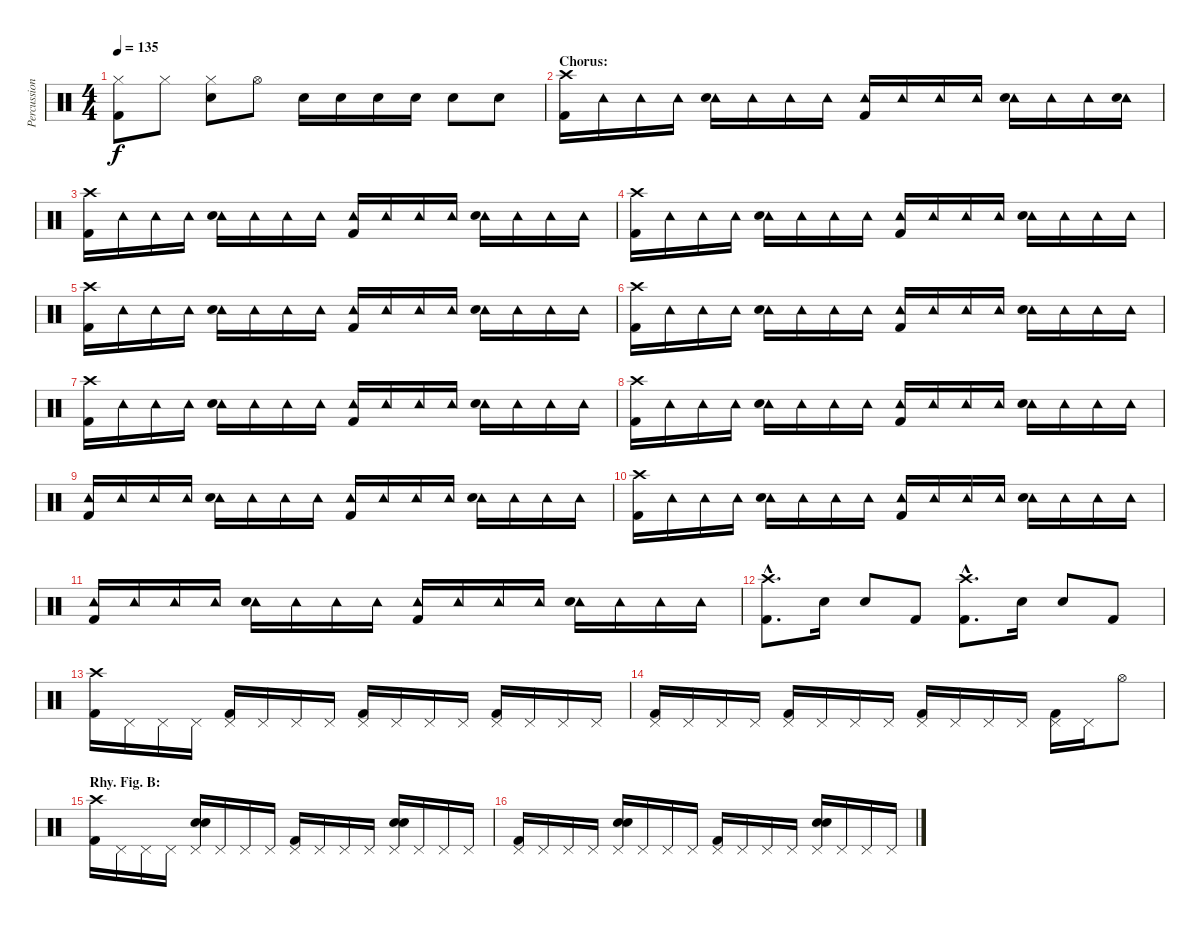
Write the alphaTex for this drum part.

\track ("Percussion" "Percussion") {instrument percussion}
\staff {score}
\articulation defaults
\ts (4 4)
\tempo 135
\clef neutral
\ks c
("Hi-Hat (closed)" "Kick (hit) 2").8{dy f} "Hi-Hat (closed)".8 ("Hi-Hat (closed)" "Snare (hit) 2").8 "Hi-Hat (open)".8 "Snare (hit) 2".16 "Snare (hit) 2".16 "Snare (hit) 2".16 "Snare (hit) 2".16 "Snare (hit) 2".8 "Snare (hit) 2".8 |
\section ("" "Chorus:")
("Crash high (hit)" "Kick (hit) 2").16 "Tambourine (hit)".16 "Tambourine (hit)".16 "Tambourine (hit)".16 ("Tambourine (hit)" "Snare (hit) 2").16 "Tambourine (hit)".16 "Tambourine (hit)".16 "Tambourine (hit)".16 ("Tambourine (hit)" "Kick (hit) 2").16 "Tambourine (hit)".16 "Tambourine (hit)".16 "Tambourine (hit)".16 ("Tambourine (hit)" "Snare (hit) 2").16 "Tambourine (hit)".16 "Tambourine (hit)".16 ("Tambourine (hit)" "Snare (hit) 2").16 |
("Crash high (hit)" "Kick (hit) 2").16 "Tambourine (hit)".16 "Tambourine (hit)".16 "Tambourine (hit)".16 ("Tambourine (hit)" "Snare (hit) 2").16 "Tambourine (hit)".16 "Tambourine (hit)".16 "Tambourine (hit)".16 ("Tambourine (hit)" "Kick (hit) 2").16 "Tambourine (hit)".16 "Tambourine (hit)".16 "Tambourine (hit)".16 ("Tambourine (hit)" "Snare (hit) 2").16 "Tambourine (hit)".16 "Tambourine (hit)".16 "Tambourine (hit)".16 |
("Crash high (hit)" "Kick (hit) 2").16 "Tambourine (hit)".16 "Tambourine (hit)".16 "Tambourine (hit)".16 ("Tambourine (hit)" "Snare (hit) 2").16 "Tambourine (hit)".16 "Tambourine (hit)".16 "Tambourine (hit)".16 ("Tambourine (hit)" "Kick (hit) 2").16 "Tambourine (hit)".16 "Tambourine (hit)".16 "Tambourine (hit)".16 ("Tambourine (hit)" "Snare (hit) 2").16 "Tambourine (hit)".16 "Tambourine (hit)".16 "Tambourine (hit)".16 |
("Crash high (hit)" "Kick (hit) 2").16 "Tambourine (hit)".16 "Tambourine (hit)".16 "Tambourine (hit)".16 ("Tambourine (hit)" "Snare (hit) 2").16 "Tambourine (hit)".16 "Tambourine (hit)".16 "Tambourine (hit)".16 ("Tambourine (hit)" "Kick (hit) 2").16 "Tambourine (hit)".16 "Tambourine (hit)".16 "Tambourine (hit)".16 ("Tambourine (hit)" "Snare (hit) 2").16 "Tambourine (hit)".16 "Tambourine (hit)".16 "Tambourine (hit)".16 |
("Crash high (hit)" "Kick (hit) 2").16 "Tambourine (hit)".16 "Tambourine (hit)".16 "Tambourine (hit)".16 ("Tambourine (hit)" "Snare (hit) 2").16 "Tambourine (hit)".16 "Tambourine (hit)".16 "Tambourine (hit)".16 ("Tambourine (hit)" "Kick (hit) 2").16 "Tambourine (hit)".16 "Tambourine (hit)".16 "Tambourine (hit)".16 ("Tambourine (hit)" "Snare (hit) 2").16 "Tambourine (hit)".16 "Tambourine (hit)".16 "Tambourine (hit)".16 |
("Crash high (hit)" "Kick (hit) 2").16 "Tambourine (hit)".16 "Tambourine (hit)".16 "Tambourine (hit)".16 ("Tambourine (hit)" "Snare (hit) 2").16 "Tambourine (hit)".16 "Tambourine (hit)".16 "Tambourine (hit)".16 ("Tambourine (hit)" "Kick (hit) 2").16 "Tambourine (hit)".16 "Tambourine (hit)".16 "Tambourine (hit)".16 ("Tambourine (hit)" "Snare (hit) 2").16 "Tambourine (hit)".16 "Tambourine (hit)".16 "Tambourine (hit)".16 |
("Crash high (hit)" "Kick (hit) 2").16 "Tambourine (hit)".16 "Tambourine (hit)".16 "Tambourine (hit)".16 ("Tambourine (hit)" "Snare (hit) 2").16 "Tambourine (hit)".16 "Tambourine (hit)".16 "Tambourine (hit)".16 ("Tambourine (hit)" "Kick (hit) 2").16 "Tambourine (hit)".16 "Tambourine (hit)".16 "Tambourine (hit)".16 ("Tambourine (hit)" "Snare (hit) 2").16 "Tambourine (hit)".16 "Tambourine (hit)".16 "Tambourine (hit)".16 |
("Tambourine (hit)" "Kick (hit) 2").16 "Tambourine (hit)".16 "Tambourine (hit)".16 "Tambourine (hit)".16 ("Tambourine (hit)" "Snare (hit) 2").16 "Tambourine (hit)".16 "Tambourine (hit)".16 "Tambourine (hit)".16 ("Tambourine (hit)" "Kick (hit) 2").16 "Tambourine (hit)".16 "Tambourine (hit)".16 "Tambourine (hit)".16 ("Tambourine (hit)" "Snare (hit) 2").16 "Tambourine (hit)".16 "Tambourine (hit)".16 "Tambourine (hit)".16 |
("Crash high (hit)" "Kick (hit) 2").16 "Tambourine (hit)".16 "Tambourine (hit)".16 "Tambourine (hit)".16 ("Tambourine (hit)" "Snare (hit) 2").16 "Tambourine (hit)".16 "Tambourine (hit)".16 "Tambourine (hit)".16 ("Tambourine (hit)" "Kick (hit) 2").16 "Tambourine (hit)".16 "Tambourine (hit)".16 "Tambourine (hit)".16 ("Tambourine (hit)" "Snare (hit) 2").16 "Tambourine (hit)".16 "Tambourine (hit)".16 "Tambourine (hit)".16 |
("Tambourine (hit)" "Kick (hit) 2").16 "Tambourine (hit)".16 "Tambourine (hit)".16 "Tambourine (hit)".16 ("Tambourine (hit)" "Snare (hit) 2").16 "Tambourine (hit)".16 "Tambourine (hit)".16 "Tambourine (hit)".16 ("Tambourine (hit)" "Kick (hit) 2").16 "Tambourine (hit)".16 "Tambourine (hit)".16 "Tambourine (hit)".16 ("Tambourine (hit)" "Snare (hit) 2").16 "Tambourine (hit)".16 "Tambourine (hit)".16 "Tambourine (hit)".16 |
("Crash high (hit)"{hac} "Kick (hit) 2"{hac}).8{d} "Snare (hit) 2".16 "Snare (hit) 2".8 "Kick (hit) 2".8 ("Crash high (hit)"{hac} "Kick (hit) 2"{hac}).8{d} "Snare (hit) 2".16 "Snare (hit) 2".8 "Kick (hit) 2".8 |
("Crash high (hit)" "Kick (hit) 2").16 "Pedal Hi-Hat (hit)".16 "Pedal Hi-Hat (hit)".16 "Pedal Hi-Hat (hit)".16 ("Pedal Hi-Hat (hit)" "Kick (hit) 2").16 "Pedal Hi-Hat (hit)".16 "Pedal Hi-Hat (hit)".16 "Pedal Hi-Hat (hit)".16 ("Pedal Hi-Hat (hit)" "Kick (hit) 2").16 "Pedal Hi-Hat (hit)".16 "Pedal Hi-Hat (hit)".16 "Pedal Hi-Hat (hit)".16 ("Pedal Hi-Hat (hit)" "Kick (hit) 2").16 "Pedal Hi-Hat (hit)".16 "Pedal Hi-Hat (hit)".16 "Pedal Hi-Hat (hit)".16 |
("Pedal Hi-Hat (hit)" "Kick (hit) 2").16 "Pedal Hi-Hat (hit)".16 "Pedal Hi-Hat (hit)".16 "Pedal Hi-Hat (hit)".16 ("Pedal Hi-Hat (hit)" "Kick (hit) 2").16 "Pedal Hi-Hat (hit)".16 "Pedal Hi-Hat (hit)".16 "Pedal Hi-Hat (hit)".16 ("Pedal Hi-Hat (hit)" "Kick (hit) 2").16 "Pedal Hi-Hat (hit)".16 "Pedal Hi-Hat (hit)".16 "Pedal Hi-Hat (hit)".16 ("Pedal Hi-Hat (hit)" "Kick (hit) 2").16 "Pedal Hi-Hat (hit)".16 "Hi-Hat (open)".8 |
\section ("" "Rhy. Fig. B:")
("Crash high (hit)" "Kick (hit) 2").16 "Pedal Hi-Hat (hit)".16 "Pedal Hi-Hat (hit)".16 "Pedal Hi-Hat (hit)".16 ("Pedal Hi-Hat (hit)" "Hand Clap (hit)" "Snare (hit) 2").16 "Pedal Hi-Hat (hit)".16 "Pedal Hi-Hat (hit)".16 "Pedal Hi-Hat (hit)".16 ("Pedal Hi-Hat (hit)" "Kick (hit) 2").16 "Pedal Hi-Hat (hit)".16 "Pedal Hi-Hat (hit)".16 "Pedal Hi-Hat (hit)".16 ("Pedal Hi-Hat (hit)" "Hand Clap (hit)" "Snare (hit) 2").16 "Pedal Hi-Hat (hit)".16 "Pedal Hi-Hat (hit)".16 "Pedal Hi-Hat (hit)".16 |
("Pedal Hi-Hat (hit)" "Kick (hit) 2").16 "Pedal Hi-Hat (hit)".16 "Pedal Hi-Hat (hit)".16 "Pedal Hi-Hat (hit)".16 ("Pedal Hi-Hat (hit)" "Hand Clap (hit)" "Snare (hit) 2").16 "Pedal Hi-Hat (hit)".16 "Pedal Hi-Hat (hit)".16 "Pedal Hi-Hat (hit)".16 ("Pedal Hi-Hat (hit)" "Kick (hit) 2").16 "Pedal Hi-Hat (hit)".16 "Pedal Hi-Hat (hit)".16 "Pedal Hi-Hat (hit)".16 ("Pedal Hi-Hat (hit)" "Hand Clap (hit)" "Snare (hit) 2").16 "Pedal Hi-Hat (hit)".16 "Pedal Hi-Hat (hit)".16 "Pedal Hi-Hat (hit)".16
